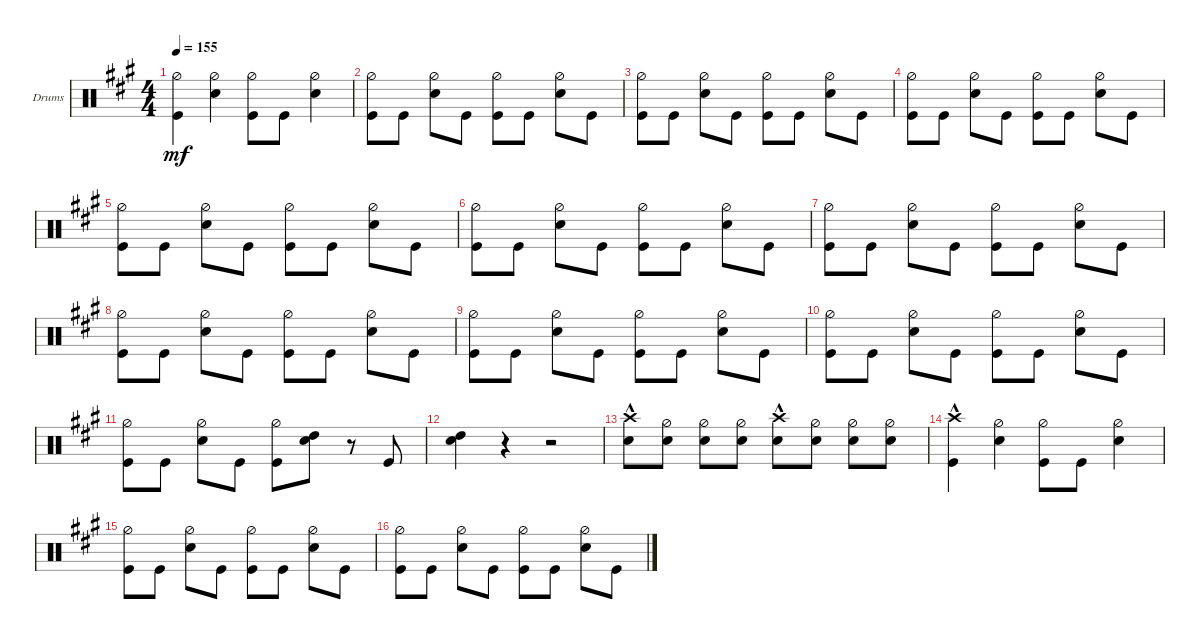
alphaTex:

\defaultSystemsLayout 4
\bracketExtendMode groupsimilarinstruments
\firstSystemTrackNameOrientation horizontal
\otherSystemsTrackNameOrientation horizontal
\track ("John Bonham" "Drums") {instrument percussion}
\staff {score}
\articulation defaults
\ts (4 4)
\tempo 155
\clef neutral
\ks a
("Kick (hit)" "Hi-Hat (half)").4{dy mf} ("Hi-Hat (half)" "Snare (hit) 2").4 ("Hi-Hat (half)" "Kick (hit)").8 "Kick (hit)".8 ("Hi-Hat (half)" "Snare (hit) 2").4 |
("Hi-Hat (half)" "Kick (hit)").8 "Kick (hit)".8 ("Hi-Hat (half)" "Snare (hit) 2").8 "Kick (hit)".8 ("Kick (hit)" "Hi-Hat (half)").8 "Kick (hit)".8 ("Hi-Hat (half)" "Snare (hit) 2").8 "Kick (hit)".8 |
("Hi-Hat (half)" "Kick (hit)").8 "Kick (hit)".8 ("Hi-Hat (half)" "Snare (hit) 2").8 "Kick (hit)".8 ("Kick (hit)" "Hi-Hat (half)").8 "Kick (hit)".8 ("Hi-Hat (half)" "Snare (hit) 2").8 "Kick (hit)".8 |
("Hi-Hat (half)" "Kick (hit)").8 "Kick (hit)".8 ("Hi-Hat (half)" "Snare (hit) 2").8 "Kick (hit)".8 ("Kick (hit)" "Hi-Hat (half)").8 "Kick (hit)".8 ("Hi-Hat (half)" "Snare (hit) 2").8 "Kick (hit)".8 |
("Hi-Hat (half)" "Kick (hit)").8 "Kick (hit)".8 ("Hi-Hat (half)" "Snare (hit) 2").8 "Kick (hit)".8 ("Kick (hit)" "Hi-Hat (half)").8 "Kick (hit)".8 ("Hi-Hat (half)" "Snare (hit) 2").8 "Kick (hit)".8 |
("Hi-Hat (half)" "Kick (hit)").8 "Kick (hit)".8 ("Hi-Hat (half)" "Snare (hit) 2").8 "Kick (hit)".8 ("Kick (hit)" "Hi-Hat (half)").8 "Kick (hit)".8 ("Hi-Hat (half)" "Snare (hit) 2").8 "Kick (hit)".8 |
("Hi-Hat (half)" "Kick (hit)").8 "Kick (hit)".8 ("Hi-Hat (half)" "Snare (hit) 2").8 "Kick (hit)".8 ("Kick (hit)" "Hi-Hat (half)").8 "Kick (hit)".8 ("Hi-Hat (half)" "Snare (hit) 2").8 "Kick (hit)".8 |
("Hi-Hat (half)" "Kick (hit)").8 "Kick (hit)".8 ("Hi-Hat (half)" "Snare (hit) 2").8 "Kick (hit)".8 ("Kick (hit)" "Hi-Hat (half)").8 "Kick (hit)".8 ("Hi-Hat (half)" "Snare (hit) 2").8 "Kick (hit)".8 |
("Hi-Hat (half)" "Kick (hit)").8 "Kick (hit)".8 ("Hi-Hat (half)" "Snare (hit) 2").8 "Kick (hit)".8 ("Kick (hit)" "Hi-Hat (half)").8 "Kick (hit)".8 ("Hi-Hat (half)" "Snare (hit) 2").8 "Kick (hit)".8 |
("Hi-Hat (half)" "Kick (hit)").8 "Kick (hit)".8 ("Hi-Hat (half)" "Snare (hit) 2").8 "Kick (hit)".8 ("Kick (hit)" "Hi-Hat (half)").8 "Kick (hit)".8 ("Hi-Hat (half)" "Snare (hit) 2").8 "Kick (hit)".8 |
("Hi-Hat (half)" "Kick (hit)").8 "Kick (hit)".8 ("Hi-Hat (half)" "Snare (hit) 2").8 "Kick (hit)".8 ("Hi-Hat (half)" "Kick (hit)").8 ("Snare (hit) 2" "High Tom (hit)").8 r.8 "Kick (hit)".8 |
("Snare (hit) 2" "High Tom (hit)").4 r.4 r.2 |
("Crash high (hit)"{hac} "Snare (hit) 2"{hac}).8 ("Hi-Hat (half)" "Snare (hit) 2").8 ("Hi-Hat (half)" "Snare (hit) 2").8 ("Hi-Hat (half)" "Snare (hit) 2").8 ("Crash high (hit)"{hac} "Snare (hit) 2"{hac}).8 ("Hi-Hat (half)" "Snare (hit) 2").8 ("Hi-Hat (half)" "Snare (hit) 2").8 ("Hi-Hat (half)" "Snare (hit) 2").8 |
("Crash high (hit)"{hac} "Kick (hit)").4 ("Hi-Hat (half)" "Snare (hit) 2").4 ("Hi-Hat (half)" "Kick (hit)").8 "Kick (hit)".8 ("Hi-Hat (half)" "Snare (hit) 2").4 |
("Hi-Hat (half)" "Kick (hit)").8 "Kick (hit)".8 ("Hi-Hat (half)" "Snare (hit) 2").8 "Kick (hit)".8 ("Kick (hit)" "Hi-Hat (half)").8 "Kick (hit)".8 ("Hi-Hat (half)" "Snare (hit) 2").8 "Kick (hit)".8 |
("Hi-Hat (half)" "Kick (hit)").8 "Kick (hit)".8 ("Hi-Hat (half)" "Snare (hit) 2").8 "Kick (hit)".8 ("Kick (hit)" "Hi-Hat (half)").8 "Kick (hit)".8 ("Hi-Hat (half)" "Snare (hit) 2").8 "Kick (hit)".8
